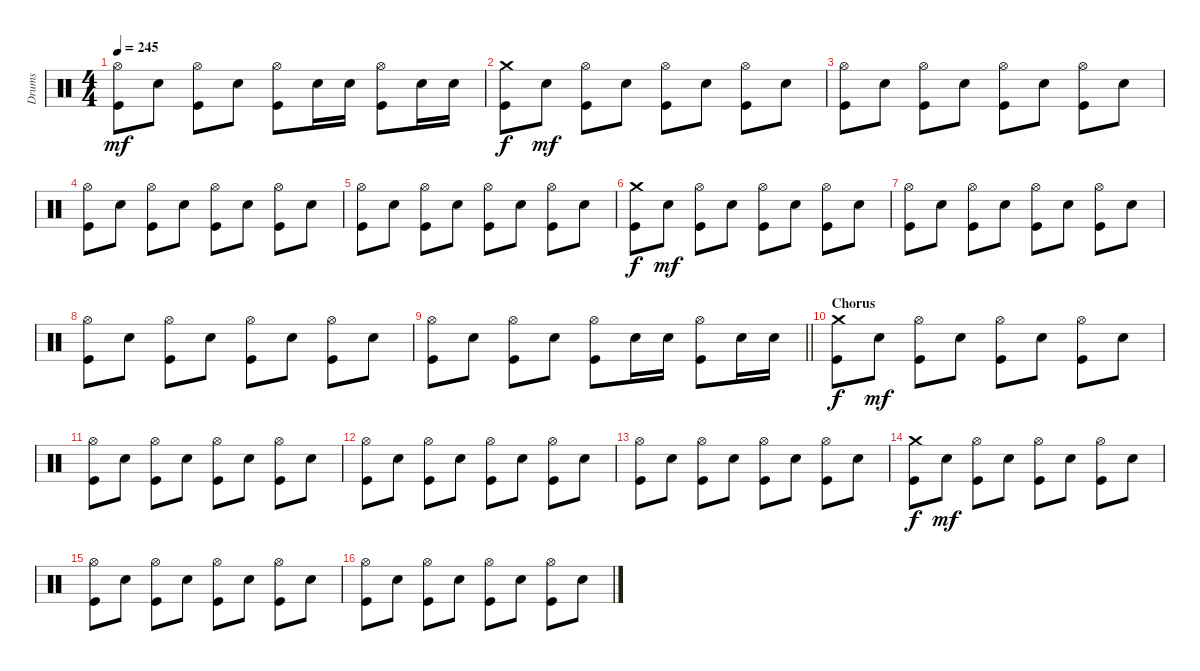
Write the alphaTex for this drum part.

\track ("Drums" "Drums") {instrument percussion}
\staff {score}
\articulation defaults
\ts (4 4)
\tempo 245
\clef neutral
\ks c
("Hi-Hat (open)" "Kick (hit)").8{dy mf} "Snare (hit) 2".8 ("Hi-Hat (open)" "Kick (hit)").8 "Snare (hit) 2".8 ("Hi-Hat (open)" "Kick (hit)").8 "Snare (hit) 2".16 "Snare (hit) 2".16 ("Hi-Hat (open)" "Kick (hit)").8 "Snare (hit) 2".16 "Snare (hit) 2".16 |
("Crash medium (hit)" "Kick (hit)").8{dy f} "Snare (hit) 2".8{dy mf} ("Hi-Hat (open)" "Kick (hit)").8 "Snare (hit) 2".8 ("Hi-Hat (open)" "Kick (hit)").8 "Snare (hit) 2".8 ("Hi-Hat (open)" "Kick (hit)").8 "Snare (hit) 2".8 |
("Hi-Hat (open)" "Kick (hit)").8 "Snare (hit) 2".8 ("Hi-Hat (open)" "Kick (hit)").8 "Snare (hit) 2".8 ("Hi-Hat (open)" "Kick (hit)").8 "Snare (hit) 2".8 ("Hi-Hat (open)" "Kick (hit)").8 "Snare (hit) 2".8 |
("Hi-Hat (open)" "Kick (hit)").8 "Snare (hit) 2".8 ("Hi-Hat (open)" "Kick (hit)").8 "Snare (hit) 2".8 ("Hi-Hat (open)" "Kick (hit)").8 "Snare (hit) 2".8 ("Hi-Hat (open)" "Kick (hit)").8 "Snare (hit) 2".8 |
("Hi-Hat (open)" "Kick (hit)").8 "Snare (hit) 2".8 ("Hi-Hat (open)" "Kick (hit)").8 "Snare (hit) 2".8 ("Hi-Hat (open)" "Kick (hit)").8 "Snare (hit) 2".8 ("Hi-Hat (open)" "Kick (hit)").8 "Snare (hit) 2".8 |
("Crash medium (hit)" "Kick (hit)").8{dy f} "Snare (hit) 2".8{dy mf} ("Hi-Hat (open)" "Kick (hit)").8 "Snare (hit) 2".8 ("Hi-Hat (open)" "Kick (hit)").8 "Snare (hit) 2".8 ("Hi-Hat (open)" "Kick (hit)").8 "Snare (hit) 2".8 |
("Hi-Hat (open)" "Kick (hit)").8 "Snare (hit) 2".8 ("Hi-Hat (open)" "Kick (hit)").8 "Snare (hit) 2".8 ("Hi-Hat (open)" "Kick (hit)").8 "Snare (hit) 2".8 ("Hi-Hat (open)" "Kick (hit)").8 "Snare (hit) 2".8 |
("Hi-Hat (open)" "Kick (hit)").8 "Snare (hit) 2".8 ("Hi-Hat (open)" "Kick (hit)").8 "Snare (hit) 2".8 ("Hi-Hat (open)" "Kick (hit)").8 "Snare (hit) 2".8 ("Hi-Hat (open)" "Kick (hit)").8 "Snare (hit) 2".8 |
\barLineRight lightlight
("Hi-Hat (open)" "Kick (hit)").8 "Snare (hit) 2".8 ("Hi-Hat (open)" "Kick (hit)").8 "Snare (hit) 2".8 ("Hi-Hat (open)" "Kick (hit)").8 "Snare (hit) 2".16 "Snare (hit) 2".16 ("Hi-Hat (open)" "Kick (hit)").8 "Snare (hit) 2".16 "Snare (hit) 2".16 |
\section ("" "Chorus")
("Crash medium (hit)" "Kick (hit)").8{dy f} "Snare (hit) 2".8{dy mf} ("Hi-Hat (open)" "Kick (hit)").8 "Snare (hit) 2".8 ("Hi-Hat (open)" "Kick (hit)").8 "Snare (hit) 2".8 ("Hi-Hat (open)" "Kick (hit)").8 "Snare (hit) 2".8 |
("Hi-Hat (open)" "Kick (hit)").8 "Snare (hit) 2".8 ("Hi-Hat (open)" "Kick (hit)").8 "Snare (hit) 2".8 ("Hi-Hat (open)" "Kick (hit)").8 "Snare (hit) 2".8 ("Hi-Hat (open)" "Kick (hit)").8 "Snare (hit) 2".8 |
("Hi-Hat (open)" "Kick (hit)").8 "Snare (hit) 2".8 ("Hi-Hat (open)" "Kick (hit)").8 "Snare (hit) 2".8 ("Hi-Hat (open)" "Kick (hit)").8 "Snare (hit) 2".8 ("Hi-Hat (open)" "Kick (hit)").8 "Snare (hit) 2".8 |
("Hi-Hat (open)" "Kick (hit)").8 "Snare (hit) 2".8 ("Hi-Hat (open)" "Kick (hit)").8 "Snare (hit) 2".8 ("Hi-Hat (open)" "Kick (hit)").8 "Snare (hit) 2".8 ("Hi-Hat (open)" "Kick (hit)").8 "Snare (hit) 2".8 |
("Crash medium (hit)" "Kick (hit)").8{dy f} "Snare (hit) 2".8{dy mf} ("Hi-Hat (open)" "Kick (hit)").8 "Snare (hit) 2".8 ("Hi-Hat (open)" "Kick (hit)").8 "Snare (hit) 2".8 ("Hi-Hat (open)" "Kick (hit)").8 "Snare (hit) 2".8 |
("Hi-Hat (open)" "Kick (hit)").8 "Snare (hit) 2".8 ("Hi-Hat (open)" "Kick (hit)").8 "Snare (hit) 2".8 ("Hi-Hat (open)" "Kick (hit)").8 "Snare (hit) 2".8 ("Hi-Hat (open)" "Kick (hit)").8 "Snare (hit) 2".8 |
("Hi-Hat (open)" "Kick (hit)").8 "Snare (hit) 2".8 ("Hi-Hat (open)" "Kick (hit)").8 "Snare (hit) 2".8 ("Hi-Hat (open)" "Kick (hit)").8 "Snare (hit) 2".8 ("Hi-Hat (open)" "Kick (hit)").8 "Snare (hit) 2".8
